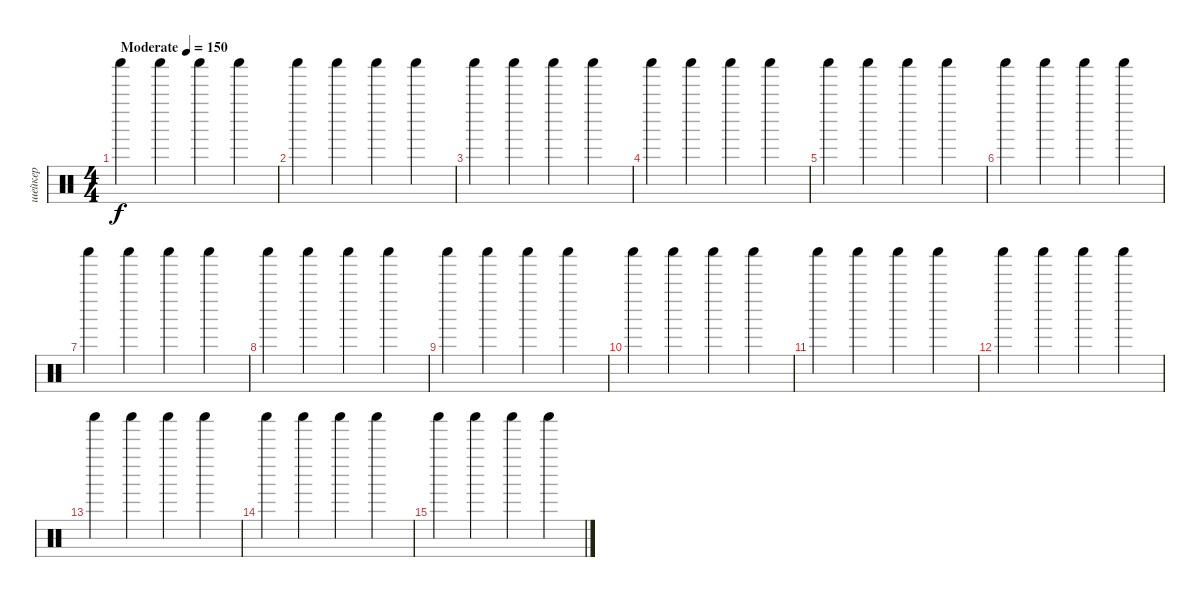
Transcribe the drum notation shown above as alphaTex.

\track ("шейкер" "шейкер") {instrument percussion}
\staff
\articulation defaults
\ts (4 4)
\tempo (150 "Moderate")
\clef neutral
\ks c "Shaker (hit)".4{dy f} "Shaker (hit)".4 "Shaker (hit)".4 "Shaker (hit)".4
|
"Shaker (hit)".4 "Shaker (hit)".4 "Shaker (hit)".4 "Shaker (hit)".4 |
"Shaker (hit)".4 "Shaker (hit)".4 "Shaker (hit)".4 "Shaker (hit)".4 |
"Shaker (hit)".4 "Shaker (hit)".4 "Shaker (hit)".4 "Shaker (hit)".4 |
"Shaker (hit)".4 "Shaker (hit)".4 "Shaker (hit)".4 "Shaker (hit)".4 |
"Shaker (hit)".4 "Shaker (hit)".4 "Shaker (hit)".4 "Shaker (hit)".4 |
"Shaker (hit)".4 "Shaker (hit)".4 "Shaker (hit)".4 "Shaker (hit)".4 |
"Shaker (hit)".4 "Shaker (hit)".4 "Shaker (hit)".4 "Shaker (hit)".4 |
"Shaker (hit)".4 "Shaker (hit)".4 "Shaker (hit)".4 "Shaker (hit)".4 |
"Shaker (hit)".4 "Shaker (hit)".4 "Shaker (hit)".4 "Shaker (hit)".4 |
"Shaker (hit)".4 "Shaker (hit)".4 "Shaker (hit)".4 "Shaker (hit)".4 |
"Shaker (hit)".4 "Shaker (hit)".4 "Shaker (hit)".4 "Shaker (hit)".4 |
"Shaker (hit)".4 "Shaker (hit)".4 "Shaker (hit)".4 "Shaker (hit)".4 |
"Shaker (hit)".4 "Shaker (hit)".4 "Shaker (hit)".4 "Shaker (hit)".4 |
"Shaker (hit)".4 "Shaker (hit)".4 "Shaker (hit)".4 "Shaker (hit)".4
